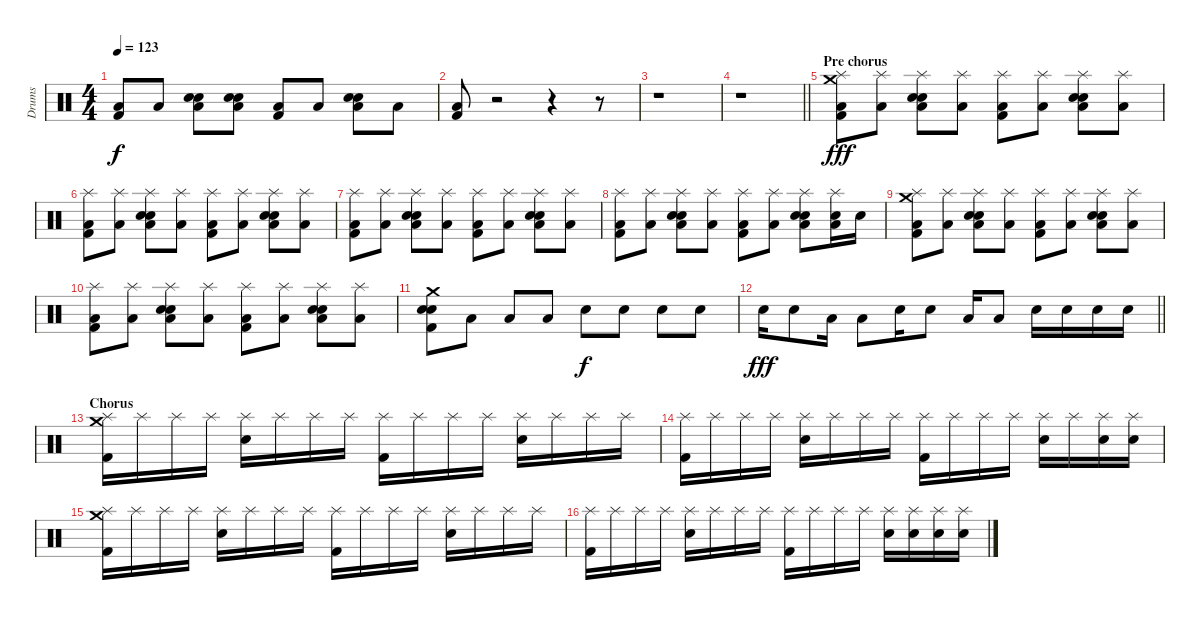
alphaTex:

\track ("Drums" "Drums") {instrument percussion}
\staff {score}
\articulation defaults
\ts (4 4)
\tempo 123
\clef neutral
\ks c
("Low Floor Tom (hit)" "Kick (hit) 2").8{dy f} "Low Floor Tom (hit)".8 ("Electric Snare (hit)" "Electric Snare (hit)" "Low Floor Tom (hit)").8 ("Electric Snare (hit)" "Electric Snare (hit)" "Low Floor Tom (hit)").8 ("Low Floor Tom (hit)" "Kick (hit) 2").8 "Low Floor Tom (hit)".8 ("Electric Snare (hit)" "Electric Snare (hit)" "Low Floor Tom (hit)").8 "Low Floor Tom (hit)".8 |
("Low Floor Tom (hit)" "Kick (hit) 2").8 r.2 r.4 r.8 |
r.1 |
\barLineRight lightlight
r.1 |
\section ("" "Pre chorus")
("Crash medium (hit)" "Splash (hit)" "Low Floor Tom (hit)" "Kick (hit) 2").8{dy fff} ("Splash (hit)" "Low Floor Tom (hit)").8 ("Electric Snare (hit)" "Electric Snare (hit)" "Splash (hit)" "Low Floor Tom (hit)").8 ("Splash (hit)" "Low Floor Tom (hit)").8 ("Splash (hit)" "Low Floor Tom (hit)" "Kick (hit) 2").8 ("Splash (hit)" "Low Floor Tom (hit)").8 ("Electric Snare (hit)" "Electric Snare (hit)" "Splash (hit)" "Low Floor Tom (hit)").8 ("Splash (hit)" "Low Floor Tom (hit)").8 |
("Splash (hit)" "Low Floor Tom (hit)" "Kick (hit) 2").8 ("Splash (hit)" "Low Floor Tom (hit)").8 ("Electric Snare (hit)" "Electric Snare (hit)" "Splash (hit)" "Low Floor Tom (hit)").8 ("Splash (hit)" "Low Floor Tom (hit)").8 ("Splash (hit)" "Low Floor Tom (hit)" "Kick (hit) 2").8 ("Splash (hit)" "Low Floor Tom (hit)").8 ("Electric Snare (hit)" "Electric Snare (hit)" "Splash (hit)" "Low Floor Tom (hit)").8 ("Splash (hit)" "Low Floor Tom (hit)").8 |
("Splash (hit)" "Low Floor Tom (hit)" "Kick (hit) 2").8 ("Splash (hit)" "Low Floor Tom (hit)").8 ("Electric Snare (hit)" "Electric Snare (hit)" "Splash (hit)" "Low Floor Tom (hit)").8 ("Splash (hit)" "Low Floor Tom (hit)").8 ("Splash (hit)" "Low Floor Tom (hit)" "Kick (hit) 2").8 ("Splash (hit)" "Low Floor Tom (hit)").8 ("Electric Snare (hit)" "Electric Snare (hit)" "Splash (hit)" "Low Floor Tom (hit)").8 ("Splash (hit)" "Low Floor Tom (hit)").8 |
("Splash (hit)" "Low Floor Tom (hit)" "Kick (hit) 2").8 ("Splash (hit)" "Low Floor Tom (hit)").8 ("Electric Snare (hit)" "Electric Snare (hit)" "Splash (hit)" "Low Floor Tom (hit)").8 ("Splash (hit)" "Low Floor Tom (hit)").8 ("Splash (hit)" "Low Floor Tom (hit)" "Kick (hit) 2").8 ("Splash (hit)" "Low Floor Tom (hit)").8 ("Electric Snare (hit)" "Electric Snare (hit)" "Splash (hit)" "Low Floor Tom (hit)").8 ("Electric Snare (hit)" "Splash (hit)" "Low Floor Tom (hit)").16 "Electric Snare (hit)".16 |
("Crash medium (hit)" "Splash (hit)" "Low Floor Tom (hit)" "Kick (hit) 2").8 ("Splash (hit)" "Low Floor Tom (hit)").8 ("Electric Snare (hit)" "Electric Snare (hit)" "Splash (hit)" "Low Floor Tom (hit)").8 ("Splash (hit)" "Low Floor Tom (hit)").8 ("Splash (hit)" "Low Floor Tom (hit)" "Kick (hit) 2").8 ("Splash (hit)" "Low Floor Tom (hit)").8 ("Electric Snare (hit)" "Electric Snare (hit)" "Splash (hit)" "Low Floor Tom (hit)").8 ("Splash (hit)" "Low Floor Tom (hit)").8 |
("Splash (hit)" "Low Floor Tom (hit)" "Kick (hit) 2").8 ("Splash (hit)" "Low Floor Tom (hit)").8 ("Electric Snare (hit)" "Electric Snare (hit)" "Splash (hit)" "Low Floor Tom (hit)").8 ("Splash (hit)" "Low Floor Tom (hit)").8 ("Splash (hit)" "Low Floor Tom (hit)" "Kick (hit) 2").8 ("Splash (hit)" "Low Floor Tom (hit)").8 ("Electric Snare (hit)" "Electric Snare (hit)" "Splash (hit)" "Low Floor Tom (hit)").8 ("Splash (hit)" "Low Floor Tom (hit)").8 |
("Crash medium (hit)" "Electric Snare (hit)" "Electric Snare (hit)" "Kick (hit) 2").8 "Low Floor Tom (hit)".8 "Low Floor Tom (hit)".8 "Low Floor Tom (hit)".8 "Electric Snare (hit)".8{dy f} "Electric Snare (hit)".8 "Electric Snare (hit)".8 "Electric Snare (hit)".8 |
\barLineRight lightlight "Electric Snare (hit)".16{dy fff} "Electric Snare (hit)".8 "Low Floor Tom (hit)".16 "Low Floor Tom (hit)".8 "Electric Snare (hit)".16 "Electric Snare (hit)".8 "Low Floor Tom (hit)".16 "Low Floor Tom (hit)".8 "Electric Snare (hit)".16 "Electric Snare (hit)".16 "Electric Snare (hit)".16 "Electric Snare (hit)".16
|
\section ("" "Chorus")
("Crash medium (hit)" "Splash (hit)" "Kick (hit) 2").16 "Splash (hit)".16 "Splash (hit)".16 "Splash (hit)".16 ("Splash (hit)" "Electric Snare (hit)").16 "Splash (hit)".16 "Splash (hit)".16 "Splash (hit)".16 ("Splash (hit)" "Kick (hit) 2").16 "Splash (hit)".16 "Splash (hit)".16 "Splash (hit)".16 ("Splash (hit)" "Electric Snare (hit)").16 "Splash (hit)".16 "Splash (hit)".16 "Splash (hit)".16 |
("Splash (hit)" "Kick (hit) 2").16 "Splash (hit)".16 "Splash (hit)".16 "Splash (hit)".16 ("Splash (hit)" "Electric Snare (hit)").16 "Splash (hit)".16 "Splash (hit)".16 "Splash (hit)".16 ("Splash (hit)" "Kick (hit) 2").16 "Splash (hit)".16 "Splash (hit)".16 "Splash (hit)".16 ("Splash (hit)" "Electric Snare (hit)").16 "Splash (hit)".16 ("Splash (hit)" "Electric Snare (hit)").16 ("Splash (hit)" "Electric Snare (hit)").16 |
("Crash medium (hit)" "Splash (hit)" "Kick (hit) 2").16 "Splash (hit)".16 "Splash (hit)".16 "Splash (hit)".16 ("Splash (hit)" "Electric Snare (hit)").16 "Splash (hit)".16 "Splash (hit)".16 "Splash (hit)".16 ("Splash (hit)" "Kick (hit) 2").16 "Splash (hit)".16 "Splash (hit)".16 "Splash (hit)".16 ("Splash (hit)" "Electric Snare (hit)").16 "Splash (hit)".16 "Splash (hit)".16 "Splash (hit)".16 |
("Splash (hit)" "Kick (hit) 2").16 "Splash (hit)".16 "Splash (hit)".16 "Splash (hit)".16 ("Splash (hit)" "Electric Snare (hit)").16 "Splash (hit)".16 "Splash (hit)".16 "Splash (hit)".16 ("Splash (hit)" "Kick (hit) 2").16 "Splash (hit)".16 "Splash (hit)".16 "Splash (hit)".16 ("Splash (hit)" "Electric Snare (hit)").16 ("Splash (hit)" "Electric Snare (hit)").16 ("Splash (hit)" "Electric Snare (hit)").16 ("Splash (hit)" "Electric Snare (hit)").16
